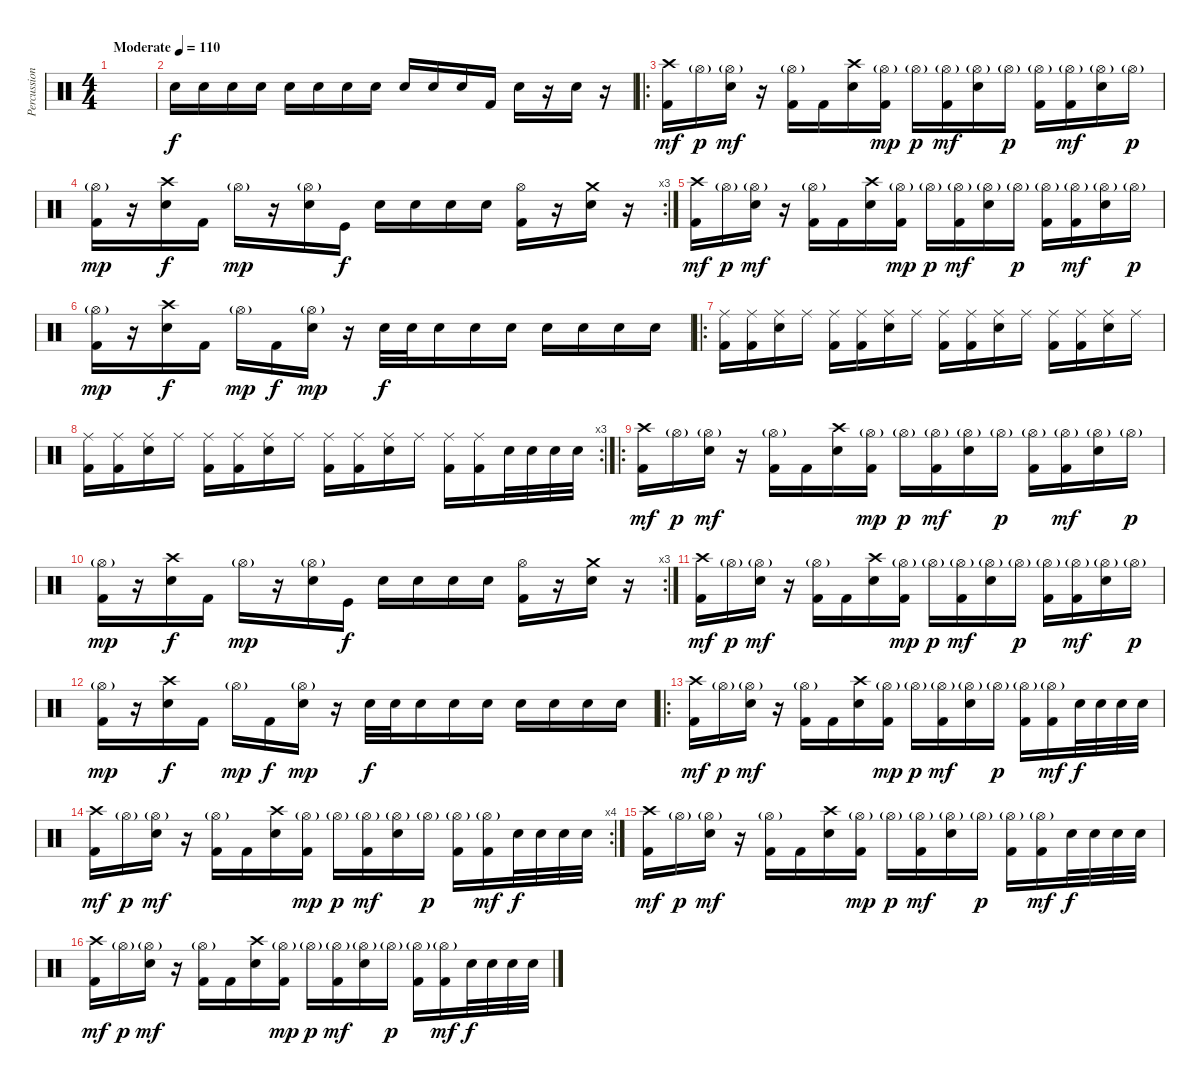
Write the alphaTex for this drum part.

\track ("Percussion" "Percussion") {instrument percussion}
\staff {score}
\articulation defaults
\ts (4 4)
\tempo (110 "Moderate")
\clef neutral
\ks c
|
"Electric Snare (hit)".16 "Electric Snare (hit)".16 "Electric Snare (hit)".16 "Electric Snare (hit)".16{dy f} "Electric Snare (hit)".16 "Electric Snare (hit)".16 "Electric Snare (hit)".16 "Electric Snare (hit)".16 "Electric Snare (hit)".16 "Electric Snare (hit)".16 "Electric Snare (hit)".16 "Kick (hit) 2".16 "Electric Snare (hit)".16 r.16 "Electric Snare (hit)".16 r.16 |
\ro
("Crash high (hit)" "Kick (hit) 2").16{dy mf} "Hi-Hat (open)"{g}.16{dy p} ("Hi-Hat (open)"{g} "Electric Snare (hit)").16{dy mf} r.16 ("Hi-Hat (open)"{g} "Kick (hit) 2").16 "Kick (hit) 2".16 ("Crash high (hit)" "Electric Snare (hit)").16 ("Hi-Hat (open)"{g} "Kick (hit) 2").16{dy mp} "Hi-Hat (open)"{g}.16{dy p} ("Hi-Hat (open)"{g} "Kick (hit) 2").16{dy mf} ("Hi-Hat (open)"{g} "Electric Snare (hit)").16 "Hi-Hat (open)"{g}.16{dy p} ("Hi-Hat (open)"{g} "Kick (hit) 2").16 ("Hi-Hat (open)"{g} "Kick (hit) 2").16{dy mf} ("Hi-Hat (open)"{g} "Electric Snare (hit)").16 "Hi-Hat (open)"{g}.16{dy p} |
\rc 3
("Hi-Hat (open)"{g} "Kick (hit) 2").16{dy mp} r.16 ("Crash high (hit)" "Electric Snare (hit)").16{dy f} "Kick (hit) 2".16 "Hi-Hat (open)"{g}.16{dy mp} r.16 ("Hi-Hat (open)"{g} "Electric Snare (hit)").16 "Kick (hit)".16{dy f} "Electric Snare (hit)".16 "Electric Snare (hit)".16 "Electric Snare (hit)".16 "Electric Snare (hit)".16 ("Hi-Hat (open)" "Kick (hit) 2").16 r.16 ("Crash medium (hit)" "Electric Snare (hit)").16 r.16 |
("Crash high (hit)" "Kick (hit) 2").16{dy mf} "Hi-Hat (open)"{g}.16{dy p} ("Hi-Hat (open)"{g} "Electric Snare (hit)").16{dy mf} r.16 ("Hi-Hat (open)"{g} "Kick (hit) 2").16 "Kick (hit) 2".16 ("Crash high (hit)" "Electric Snare (hit)").16 ("Hi-Hat (open)"{g} "Kick (hit) 2").16{dy mp} "Hi-Hat (open)"{g}.16{dy p} ("Hi-Hat (open)"{g} "Kick (hit) 2").16{dy mf} ("Hi-Hat (open)"{g} "Electric Snare (hit)").16 "Hi-Hat (open)"{g}.16{dy p} ("Hi-Hat (open)"{g} "Kick (hit) 2").16 ("Hi-Hat (open)"{g} "Kick (hit) 2").16{dy mf} ("Hi-Hat (open)"{g} "Electric Snare (hit)").16 "Hi-Hat (open)"{g}.16{dy p} |
("Hi-Hat (open)"{g} "Kick (hit) 2").16{dy mp} r.16 ("Crash high (hit)" "Electric Snare (hit)").16{dy f} "Kick (hit) 2".16 "Hi-Hat (open)"{g}.16{dy mp} "Kick (hit) 2".16{dy f} ("Hi-Hat (open)"{g} "Electric Snare (hit)").16{dy mp} r.16 "Electric Snare (hit)".32{dy f} "Electric Snare (hit)".32 "Electric Snare (hit)".16 "Electric Snare (hit)".16 "Electric Snare (hit)".16 "Electric Snare (hit)".16 "Electric Snare (hit)".16 "Electric Snare (hit)".16 "Electric Snare (hit)".16 |
\ro
("Ride (middle)" "Kick (hit) 2").16 ("Ride (middle)" "Kick (hit) 2").16 ("Ride (middle)" "Electric Snare (hit)").16 "Ride (middle)".16 ("Ride (middle)" "Kick (hit) 2").16 ("Ride (middle)" "Kick (hit) 2").16 ("Ride (middle)" "Electric Snare (hit)").16 "Ride (middle)".16 ("Ride (middle)" "Kick (hit) 2").16 ("Ride (middle)" "Kick (hit) 2").16 ("Ride (middle)" "Electric Snare (hit)").16 "Ride (middle)".16 ("Ride (middle)" "Kick (hit) 2").16 ("Ride (middle)" "Kick (hit) 2").16 ("Ride (middle)" "Electric Snare (hit)").16 "Ride (middle)".16 |
\rc 3
("Ride (middle)" "Kick (hit) 2").16 ("Ride (middle)" "Kick (hit) 2").16 ("Ride (middle)" "Electric Snare (hit)").16 "Ride (middle)".16 ("Ride (middle)" "Kick (hit) 2").16 ("Ride (middle)" "Kick (hit) 2").16 ("Ride (middle)" "Electric Snare (hit)").16 "Ride (middle)".16 ("Ride (middle)" "Kick (hit) 2").16 ("Ride (middle)" "Kick (hit) 2").16 ("Ride (middle)" "Electric Snare (hit)").16 "Ride (middle)".16 ("Ride (middle)" "Kick (hit) 2").16 ("Ride (middle)" "Kick (hit) 2").16 "Electric Snare (hit)".32 "Electric Snare (hit)".32 "Electric Snare (hit)".32 "Electric Snare (hit)".32 |
\ro
("Crash high (hit)" "Kick (hit) 2").16{dy mf} "Hi-Hat (open)"{g}.16{dy p} ("Hi-Hat (open)"{g} "Electric Snare (hit)").16{dy mf} r.16 ("Hi-Hat (open)"{g} "Kick (hit) 2").16 "Kick (hit) 2".16 ("Crash high (hit)" "Electric Snare (hit)").16 ("Hi-Hat (open)"{g} "Kick (hit) 2").16{dy mp} "Hi-Hat (open)"{g}.16{dy p} ("Hi-Hat (open)"{g} "Kick (hit) 2").16{dy mf} ("Hi-Hat (open)"{g} "Electric Snare (hit)").16 "Hi-Hat (open)"{g}.16{dy p} ("Hi-Hat (open)"{g} "Kick (hit) 2").16 ("Hi-Hat (open)"{g} "Kick (hit) 2").16{dy mf} ("Hi-Hat (open)"{g} "Electric Snare (hit)").16 "Hi-Hat (open)"{g}.16{dy p} |
\rc 3
("Hi-Hat (open)"{g} "Kick (hit) 2").16{dy mp} r.16 ("Crash high (hit)" "Electric Snare (hit)").16{dy f} "Kick (hit) 2".16 "Hi-Hat (open)"{g}.16{dy mp} r.16 ("Hi-Hat (open)"{g} "Electric Snare (hit)").16 "Kick (hit)".16{dy f} "Electric Snare (hit)".16 "Electric Snare (hit)".16 "Electric Snare (hit)".16 "Electric Snare (hit)".16 ("Hi-Hat (open)" "Kick (hit) 2").16 r.16 ("Crash medium (hit)" "Electric Snare (hit)").16 r.16 |
("Crash high (hit)" "Kick (hit) 2").16{dy mf} "Hi-Hat (open)"{g}.16{dy p} ("Hi-Hat (open)"{g} "Electric Snare (hit)").16{dy mf} r.16 ("Hi-Hat (open)"{g} "Kick (hit) 2").16 "Kick (hit) 2".16 ("Crash high (hit)" "Electric Snare (hit)").16 ("Hi-Hat (open)"{g} "Kick (hit) 2").16{dy mp} "Hi-Hat (open)"{g}.16{dy p} ("Hi-Hat (open)"{g} "Kick (hit) 2").16{dy mf} ("Hi-Hat (open)"{g} "Electric Snare (hit)").16 "Hi-Hat (open)"{g}.16{dy p} ("Hi-Hat (open)"{g} "Kick (hit) 2").16 ("Hi-Hat (open)"{g} "Kick (hit) 2").16{dy mf} ("Hi-Hat (open)"{g} "Electric Snare (hit)").16 "Hi-Hat (open)"{g}.16{dy p} |
("Hi-Hat (open)"{g} "Kick (hit) 2").16{dy mp} r.16 ("Crash high (hit)" "Electric Snare (hit)").16{dy f} "Kick (hit) 2".16 "Hi-Hat (open)"{g}.16{dy mp} "Kick (hit) 2".16{dy f} ("Hi-Hat (open)"{g} "Electric Snare (hit)").16{dy mp} r.16 "Electric Snare (hit)".32{dy f} "Electric Snare (hit)".32 "Electric Snare (hit)".16 "Electric Snare (hit)".16 "Electric Snare (hit)".16 "Electric Snare (hit)".16 "Electric Snare (hit)".16 "Electric Snare (hit)".16 "Electric Snare (hit)".16 |
\ro
("Crash high (hit)" "Kick (hit) 2").16{dy mf} "Hi-Hat (open)"{g}.16{dy p} ("Hi-Hat (open)"{g} "Electric Snare (hit)").16{dy mf} r.16 ("Hi-Hat (open)"{g} "Kick (hit) 2").16 "Kick (hit) 2".16 ("Crash high (hit)" "Electric Snare (hit)").16 ("Hi-Hat (open)"{g} "Kick (hit) 2").16{dy mp} "Hi-Hat (open)"{g}.16{dy p} ("Hi-Hat (open)"{g} "Kick (hit) 2").16{dy mf} ("Hi-Hat (open)"{g} "Electric Snare (hit)").16 "Hi-Hat (open)"{g}.16{dy p} ("Hi-Hat (open)"{g} "Kick (hit) 2").16 ("Hi-Hat (open)"{g} "Kick (hit) 2").16{dy mf} "Electric Snare (hit)".32{dy f} "Electric Snare (hit)".32 "Electric Snare (hit)".32 "Electric Snare (hit)".32 |
\rc 4
("Crash high (hit)" "Kick (hit) 2").16{dy mf} "Hi-Hat (open)"{g}.16{dy p} ("Hi-Hat (open)"{g} "Electric Snare (hit)").16{dy mf} r.16 ("Hi-Hat (open)"{g} "Kick (hit) 2").16 "Kick (hit) 2".16 ("Crash high (hit)" "Electric Snare (hit)").16 ("Hi-Hat (open)"{g} "Kick (hit) 2").16{dy mp} "Hi-Hat (open)"{g}.16{dy p} ("Hi-Hat (open)"{g} "Kick (hit) 2").16{dy mf} ("Hi-Hat (open)"{g} "Electric Snare (hit)").16 "Hi-Hat (open)"{g}.16{dy p} ("Hi-Hat (open)"{g} "Kick (hit) 2").16 ("Hi-Hat (open)"{g} "Kick (hit) 2").16{dy mf} "Electric Snare (hit)".32{dy f} "Electric Snare (hit)".32 "Electric Snare (hit)".32 "Electric Snare (hit)".32 |
("Crash high (hit)" "Kick (hit) 2").16{dy mf} "Hi-Hat (open)"{g}.16{dy p} ("Hi-Hat (open)"{g} "Electric Snare (hit)").16{dy mf} r.16 ("Hi-Hat (open)"{g} "Kick (hit) 2").16 "Kick (hit) 2".16 ("Crash high (hit)" "Electric Snare (hit)").16 ("Hi-Hat (open)"{g} "Kick (hit) 2").16{dy mp} "Hi-Hat (open)"{g}.16{dy p} ("Hi-Hat (open)"{g} "Kick (hit) 2").16{dy mf} ("Hi-Hat (open)"{g} "Electric Snare (hit)").16 "Hi-Hat (open)"{g}.16{dy p} ("Hi-Hat (open)"{g} "Kick (hit) 2").16 ("Hi-Hat (open)"{g} "Kick (hit) 2").16{dy mf} "Electric Snare (hit)".32{dy f} "Electric Snare (hit)".32 "Electric Snare (hit)".32 "Electric Snare (hit)".32 |
("Crash high (hit)" "Kick (hit) 2").16{dy mf} "Hi-Hat (open)"{g}.16{dy p} ("Hi-Hat (open)"{g} "Electric Snare (hit)").16{dy mf} r.16 ("Hi-Hat (open)"{g} "Kick (hit) 2").16 "Kick (hit) 2".16 ("Crash high (hit)" "Electric Snare (hit)").16 ("Hi-Hat (open)"{g} "Kick (hit) 2").16{dy mp} "Hi-Hat (open)"{g}.16{dy p} ("Hi-Hat (open)"{g} "Kick (hit) 2").16{dy mf} ("Hi-Hat (open)"{g} "Electric Snare (hit)").16 "Hi-Hat (open)"{g}.16{dy p} ("Hi-Hat (open)"{g} "Kick (hit) 2").16 ("Hi-Hat (open)"{g} "Kick (hit) 2").16{dy mf} "Electric Snare (hit)".32{dy f} "Electric Snare (hit)".32 "Electric Snare (hit)".32 "Electric Snare (hit)".32
